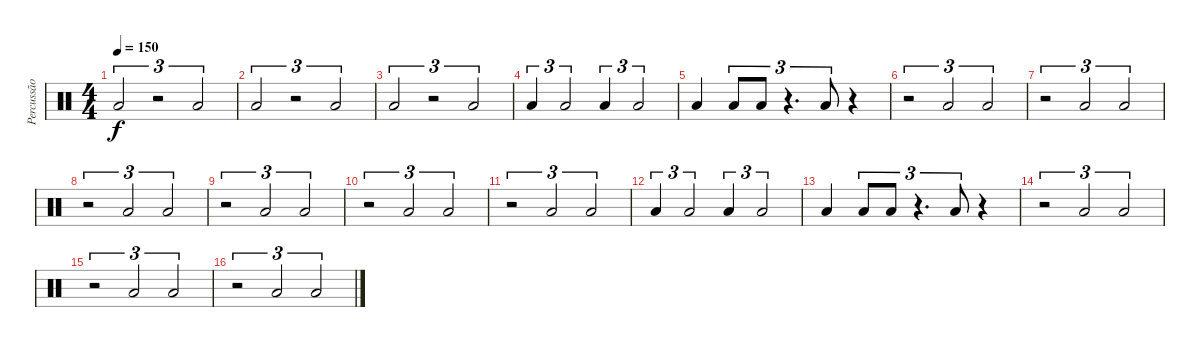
\track ("Percussão" "Percussão") {instrument percussion}
\staff {score}
\articulation defaults
\ts (4 4)
\tempo 150
\tempo 160
\tempo 150
\clef neutral
\ks c "Low Tom (hit)".2{tu (3 2) dy f}
r.2{tu (3 2)} "Low Tom (hit)".2{tu (3 2)} |
"Low Tom (hit)".2{tu (3 2)} r.2{tu (3 2)} "Low Tom (hit)".2{tu (3 2)} |
"Low Tom (hit)".2{tu (3 2)} r.2{tu (3 2)} "Low Tom (hit)".2{tu (3 2)} |
"Low Tom (hit)".4{tu (3 2)} "Low Tom (hit)".2{tu (3 2)} "Low Tom (hit)".4{tu (3 2)} "Low Tom (hit)".2{tu (3 2)} |
"Low Tom (hit)".4 "Low Tom (hit)".8{tu (3 2)} "Low Tom (hit)".8{tu (3 2)} r.4{d tu (3 2)} "Low Tom (hit)".8{tu (3 2)} r.4 |
r.2{tu (3 2)} "Low Tom (hit)".2{tu (3 2)} "Low Tom (hit)".2{tu (3 2)} |
r.2{tu (3 2)} "Low Tom (hit)".2{tu (3 2)} "Low Tom (hit)".2{tu (3 2)} |
r.2{tu (3 2)} "Low Tom (hit)".2{tu (3 2)} "Low Tom (hit)".2{tu (3 2)} |
r.2{tu (3 2)} "Low Tom (hit)".2{tu (3 2)} "Low Tom (hit)".2{tu (3 2)} |
r.2{tu (3 2)} "Low Tom (hit)".2{tu (3 2)} "Low Tom (hit)".2{tu (3 2)} |
r.2{tu (3 2)} "Low Tom (hit)".2{tu (3 2)} "Low Tom (hit)".2{tu (3 2)} |
"Low Tom (hit)".4{tu (3 2)} "Low Tom (hit)".2{tu (3 2)} "Low Tom (hit)".4{tu (3 2)} "Low Tom (hit)".2{tu (3 2)} |
"Low Tom (hit)".4 "Low Tom (hit)".8{tu (3 2)} "Low Tom (hit)".8{tu (3 2)} r.4{d tu (3 2)} "Low Tom (hit)".8{tu (3 2)} r.4 |
r.2{tu (3 2)} "Low Tom (hit)".2{tu (3 2)} "Low Tom (hit)".2{tu (3 2)} |
r.2{tu (3 2)} "Low Tom (hit)".2{tu (3 2)} "Low Tom (hit)".2{tu (3 2)} |
r.2{tu (3 2)} "Low Tom (hit)".2{tu (3 2)} "Low Tom (hit)".2{tu (3 2)}
